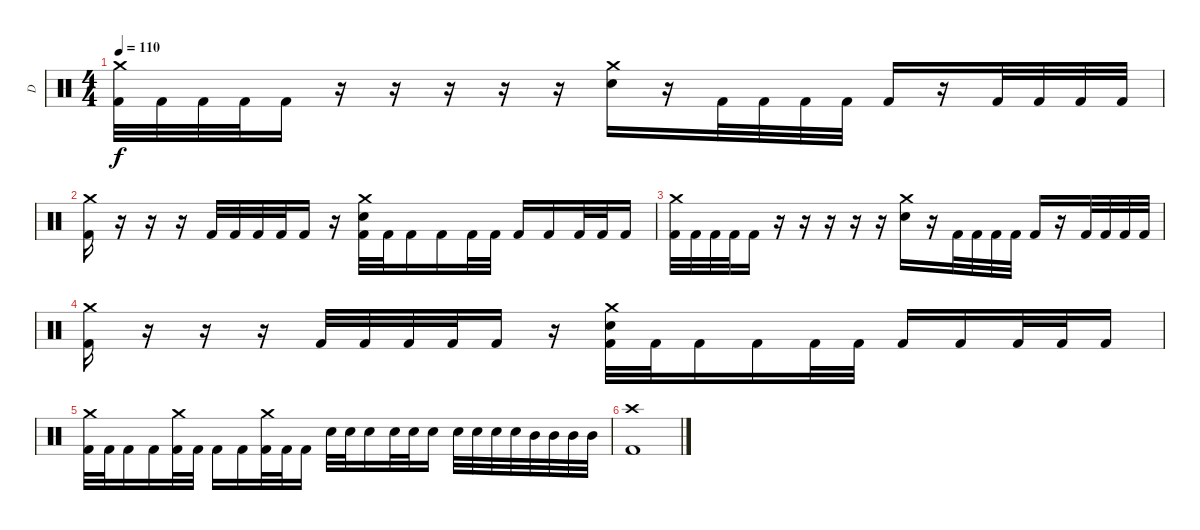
\track ("D" "D") {instrument percussion}
\staff {score}
\articulation defaults
\ts (4 4)
\tempo 110
\clef neutral
\ks c
("Crash medium (hit)" "Kick (hit) 2").32{dy f} "Kick (hit) 2".32 "Kick (hit) 2".32 "Kick (hit) 2".32 "Kick (hit) 2".16 r.16 r.16 r.16 r.16 r.16 ("Crash medium (hit)" "Electric Snare (hit)").16 r.16 "Kick (hit) 2".32 "Kick (hit) 2".32 "Kick (hit) 2".32 "Kick (hit) 2".32 "Kick (hit) 2".16 r.16 "Kick (hit) 2".32 "Kick (hit) 2".32 "Kick (hit) 2".32 "Kick (hit) 2".32 |
("Crash medium (hit)" "Kick (hit) 2").16 r.16 r.16 r.16 "Kick (hit) 2".32 "Kick (hit) 2".32 "Kick (hit) 2".32 "Kick (hit) 2".32 "Kick (hit) 2".16 r.16 ("Crash medium (hit)" "Electric Snare (hit)" "Kick (hit) 2").32 "Kick (hit) 2".32 "Kick (hit) 2".16 "Kick (hit) 2".16 "Kick (hit) 2".32 "Kick (hit) 2".32 "Kick (hit) 2".16 "Kick (hit) 2".16 "Kick (hit) 2".32 "Kick (hit) 2".32 "Kick (hit) 2".16 |
("Crash medium (hit)" "Kick (hit) 2").32 "Kick (hit) 2".32 "Kick (hit) 2".32 "Kick (hit) 2".32 "Kick (hit) 2".16 r.16 r.16 r.16 r.16 r.16 ("Crash medium (hit)" "Electric Snare (hit)").16 r.16 "Kick (hit) 2".32 "Kick (hit) 2".32 "Kick (hit) 2".32 "Kick (hit) 2".32 "Kick (hit) 2".16 r.16 "Kick (hit) 2".32 "Kick (hit) 2".32 "Kick (hit) 2".32 "Kick (hit) 2".32 |
("Crash medium (hit)" "Kick (hit) 2").16 r.16 r.16 r.16 "Kick (hit) 2".32 "Kick (hit) 2".32 "Kick (hit) 2".32 "Kick (hit) 2".32 "Kick (hit) 2".16 r.16 ("Crash medium (hit)" "Electric Snare (hit)" "Kick (hit) 2").32 "Kick (hit) 2".32 "Kick (hit) 2".16 "Kick (hit) 2".16 "Kick (hit) 2".32 "Kick (hit) 2".32 "Kick (hit) 2".16 "Kick (hit) 2".16 "Kick (hit) 2".32 "Kick (hit) 2".32 "Kick (hit) 2".16 |
("Crash medium (hit)" "Kick (hit) 2").32 "Kick (hit) 2".32 "Kick (hit) 2".16 "Kick (hit) 2".16 ("Crash medium (hit)" "Kick (hit) 2").32 "Kick (hit) 2".32 "Kick (hit) 2".16 "Kick (hit) 2".16 ("Crash medium (hit)" "Kick (hit) 2").32 "Kick (hit) 2".32 "Kick (hit) 2".16 "Electric Snare (hit)".32 "Electric Snare (hit)".32 "Electric Snare (hit)".16 "Electric Snare (hit)".32 "Electric Snare (hit)".32 "Electric Snare (hit)".16 "Electric Snare (hit)".32 "Electric Snare (hit)".32 "Electric Snare (hit)".32 "Electric Snare (hit)".32 "Mid Tom (hit)".32 "Mid Tom (hit)".32 "Mid Tom (hit)".32 "Mid Tom (hit)".32 |
("Crash high (hit)" "Kick (hit) 2").1
